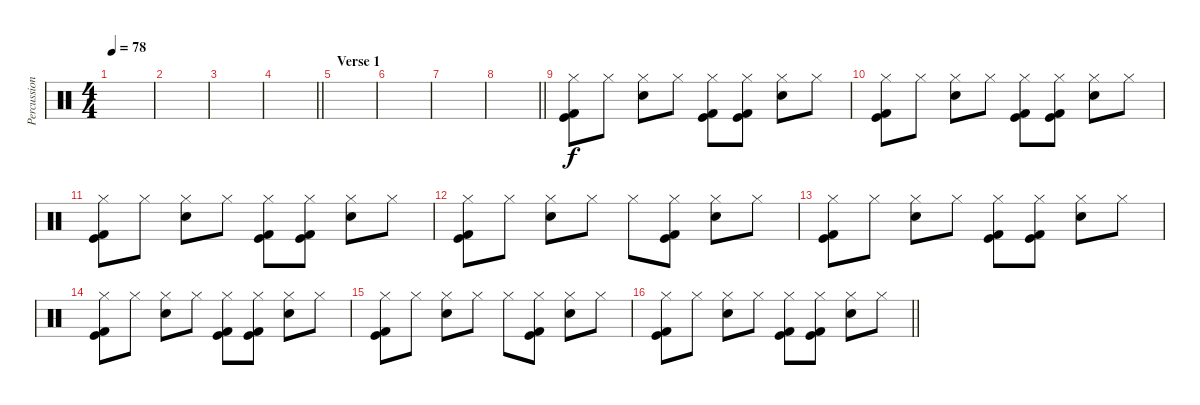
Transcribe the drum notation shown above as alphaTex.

\track ("Percussion" "Percussion") {instrument percussion}
\staff {score}
\articulation defaults
\ts (4 4)
\tempo 78
\clef neutral
\ks c
|
|
|
\barLineRight lightlight
|
\section ("" "Verse 1")
|
|
|
\barLineRight lightlight
|
\section ("" "")
("Hi-Hat (closed)" "Kick (hit)" "Kick (hit) 2").8 "Hi-Hat (closed)".8 ("Hi-Hat (closed)" "Electric Snare (hit)").8 "Hi-Hat (closed)".8 ("Hi-Hat (closed)" "Kick (hit)" "Kick (hit) 2").8 ("Hi-Hat (closed)" "Kick (hit)" "Kick (hit) 2").8 ("Hi-Hat (closed)" "Electric Snare (hit)").8 "Hi-Hat (closed)".8 |
("Hi-Hat (closed)" "Kick (hit)" "Kick (hit) 2").8 "Hi-Hat (closed)".8 ("Hi-Hat (closed)" "Electric Snare (hit)").8 "Hi-Hat (closed)".8 ("Hi-Hat (closed)" "Kick (hit)" "Kick (hit) 2").8 ("Hi-Hat (closed)" "Kick (hit)" "Kick (hit) 2").8 ("Hi-Hat (closed)" "Electric Snare (hit)").8 "Hi-Hat (closed)".8 |
("Hi-Hat (closed)" "Kick (hit)" "Kick (hit) 2").8 "Hi-Hat (closed)".8 ("Hi-Hat (closed)" "Electric Snare (hit)").8 "Hi-Hat (closed)".8 ("Hi-Hat (closed)" "Kick (hit)" "Kick (hit) 2").8 ("Hi-Hat (closed)" "Kick (hit)" "Kick (hit) 2").8 ("Hi-Hat (closed)" "Electric Snare (hit)").8 "Hi-Hat (closed)".8 |
("Hi-Hat (closed)" "Kick (hit)" "Kick (hit) 2").8 "Hi-Hat (closed)".8 ("Hi-Hat (closed)" "Electric Snare (hit)").8 "Hi-Hat (closed)".8 "Hi-Hat (closed)".8 ("Hi-Hat (closed)" "Kick (hit)" "Kick (hit) 2").8 ("Hi-Hat (closed)" "Electric Snare (hit)").8 "Hi-Hat (closed)".8 |
("Hi-Hat (closed)" "Kick (hit)" "Kick (hit) 2").8 "Hi-Hat (closed)".8 ("Hi-Hat (closed)" "Electric Snare (hit)").8 "Hi-Hat (closed)".8 ("Hi-Hat (closed)" "Kick (hit)" "Kick (hit) 2").8 ("Hi-Hat (closed)" "Kick (hit)" "Kick (hit) 2").8 ("Hi-Hat (closed)" "Electric Snare (hit)").8 "Hi-Hat (closed)".8 |
("Hi-Hat (closed)" "Kick (hit)" "Kick (hit) 2").8 "Hi-Hat (closed)".8 ("Hi-Hat (closed)" "Electric Snare (hit)").8 "Hi-Hat (closed)".8 ("Hi-Hat (closed)" "Kick (hit)" "Kick (hit) 2").8 ("Hi-Hat (closed)" "Kick (hit)" "Kick (hit) 2").8 ("Hi-Hat (closed)" "Electric Snare (hit)").8 "Hi-Hat (closed)".8 |
("Hi-Hat (closed)" "Kick (hit)" "Kick (hit) 2").8 "Hi-Hat (closed)".8 ("Hi-Hat (closed)" "Electric Snare (hit)").8 "Hi-Hat (closed)".8 "Hi-Hat (closed)".8 ("Hi-Hat (closed)" "Kick (hit)" "Kick (hit) 2").8 ("Hi-Hat (closed)" "Electric Snare (hit)").8 "Hi-Hat (closed)".8 |
\barLineRight lightlight
("Hi-Hat (closed)" "Kick (hit)" "Kick (hit) 2").8 "Hi-Hat (closed)".8 ("Hi-Hat (closed)" "Electric Snare (hit)").8 "Hi-Hat (closed)".8 ("Hi-Hat (closed)" "Kick (hit)" "Kick (hit) 2").8 ("Hi-Hat (closed)" "Kick (hit)" "Kick (hit) 2").8 ("Hi-Hat (closed)" "Electric Snare (hit)").8 "Hi-Hat (closed)".8
